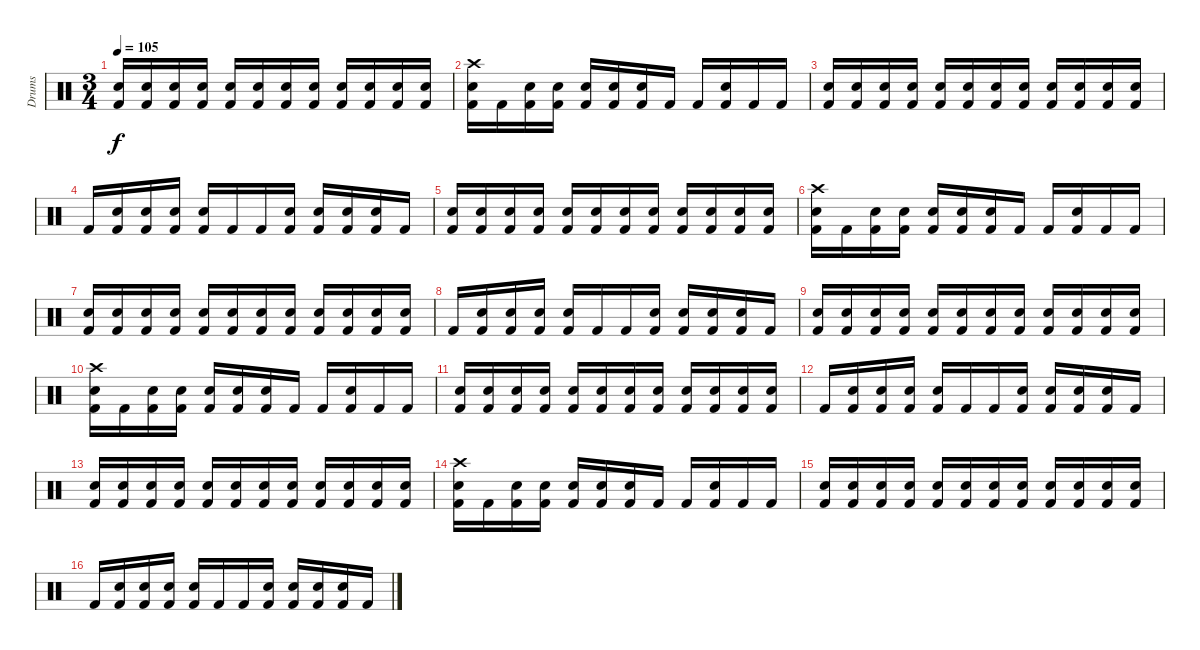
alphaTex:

\track ("Drums" "Drums") {instrument percussion}
\staff {score}
\articulation defaults
\ts (3 4)
\tempo 105
\clef neutral
\ks c
("Snare (hit) 2" "Kick (hit) 2").16{dy f} ("Snare (hit) 2" "Kick (hit) 2").16 ("Snare (hit) 2" "Kick (hit) 2").16 ("Snare (hit) 2" "Kick (hit) 2").16 ("Snare (hit) 2" "Kick (hit) 2").16 ("Snare (hit) 2" "Kick (hit) 2").16 ("Snare (hit) 2" "Kick (hit) 2").16 ("Snare (hit) 2" "Kick (hit) 2").16 ("Snare (hit) 2" "Kick (hit) 2").16 ("Snare (hit) 2" "Kick (hit) 2").16 ("Snare (hit) 2" "Kick (hit) 2").16 ("Snare (hit) 2" "Kick (hit) 2").16 |
("Crash high (hit)" "Snare (hit) 2" "Kick (hit) 2").16 "Kick (hit) 2".16 ("Snare (hit) 2" "Kick (hit) 2").16 ("Snare (hit) 2" "Kick (hit) 2").16 ("Snare (hit) 2" "Kick (hit) 2").16 ("Snare (hit) 2" "Kick (hit) 2").16 ("Snare (hit) 2" "Kick (hit) 2").16 "Kick (hit) 2".16 "Kick (hit) 2".16 ("Snare (hit) 2" "Kick (hit) 2").16 "Kick (hit) 2".16 "Kick (hit) 2".16 |
("Snare (hit) 2" "Kick (hit) 2").16 ("Snare (hit) 2" "Kick (hit) 2").16 ("Snare (hit) 2" "Kick (hit) 2").16 ("Snare (hit) 2" "Kick (hit) 2").16 ("Snare (hit) 2" "Kick (hit) 2").16 ("Snare (hit) 2" "Kick (hit) 2").16 ("Snare (hit) 2" "Kick (hit) 2").16 ("Snare (hit) 2" "Kick (hit) 2").16 ("Snare (hit) 2" "Kick (hit) 2").16 ("Snare (hit) 2" "Kick (hit) 2").16 ("Snare (hit) 2" "Kick (hit) 2").16 ("Snare (hit) 2" "Kick (hit) 2").16 |
"Kick (hit) 2".16 ("Snare (hit) 2" "Kick (hit) 2").16 ("Snare (hit) 2" "Kick (hit) 2").16 ("Snare (hit) 2" "Kick (hit) 2").16 ("Snare (hit) 2" "Kick (hit) 2").16 "Kick (hit) 2".16 "Kick (hit) 2".16 ("Snare (hit) 2" "Kick (hit) 2").16 ("Snare (hit) 2" "Kick (hit) 2").16 ("Snare (hit) 2" "Kick (hit) 2").16 ("Snare (hit) 2" "Kick (hit) 2").16 "Kick (hit) 2".16 |
("Snare (hit) 2" "Kick (hit) 2").16 ("Snare (hit) 2" "Kick (hit) 2").16 ("Snare (hit) 2" "Kick (hit) 2").16 ("Snare (hit) 2" "Kick (hit) 2").16 ("Snare (hit) 2" "Kick (hit) 2").16 ("Snare (hit) 2" "Kick (hit) 2").16 ("Snare (hit) 2" "Kick (hit) 2").16 ("Snare (hit) 2" "Kick (hit) 2").16 ("Snare (hit) 2" "Kick (hit) 2").16 ("Snare (hit) 2" "Kick (hit) 2").16 ("Snare (hit) 2" "Kick (hit) 2").16 ("Snare (hit) 2" "Kick (hit) 2").16 |
("Crash high (hit)" "Snare (hit) 2" "Kick (hit) 2").16 "Kick (hit) 2".16 ("Snare (hit) 2" "Kick (hit) 2").16 ("Snare (hit) 2" "Kick (hit) 2").16 ("Snare (hit) 2" "Kick (hit) 2").16 ("Snare (hit) 2" "Kick (hit) 2").16 ("Snare (hit) 2" "Kick (hit) 2").16 "Kick (hit) 2".16 "Kick (hit) 2".16 ("Snare (hit) 2" "Kick (hit) 2").16 "Kick (hit) 2".16 "Kick (hit) 2".16 |
("Snare (hit) 2" "Kick (hit) 2").16 ("Snare (hit) 2" "Kick (hit) 2").16 ("Snare (hit) 2" "Kick (hit) 2").16 ("Snare (hit) 2" "Kick (hit) 2").16 ("Snare (hit) 2" "Kick (hit) 2").16 ("Snare (hit) 2" "Kick (hit) 2").16 ("Snare (hit) 2" "Kick (hit) 2").16 ("Snare (hit) 2" "Kick (hit) 2").16 ("Snare (hit) 2" "Kick (hit) 2").16 ("Snare (hit) 2" "Kick (hit) 2").16 ("Snare (hit) 2" "Kick (hit) 2").16 ("Snare (hit) 2" "Kick (hit) 2").16 |
"Kick (hit) 2".16 ("Snare (hit) 2" "Kick (hit) 2").16 ("Snare (hit) 2" "Kick (hit) 2").16 ("Snare (hit) 2" "Kick (hit) 2").16 ("Snare (hit) 2" "Kick (hit) 2").16 "Kick (hit) 2".16 "Kick (hit) 2".16 ("Snare (hit) 2" "Kick (hit) 2").16 ("Snare (hit) 2" "Kick (hit) 2").16 ("Snare (hit) 2" "Kick (hit) 2").16 ("Snare (hit) 2" "Kick (hit) 2").16 "Kick (hit) 2".16 |
("Snare (hit) 2" "Kick (hit) 2").16 ("Snare (hit) 2" "Kick (hit) 2").16 ("Snare (hit) 2" "Kick (hit) 2").16 ("Snare (hit) 2" "Kick (hit) 2").16 ("Snare (hit) 2" "Kick (hit) 2").16 ("Snare (hit) 2" "Kick (hit) 2").16 ("Snare (hit) 2" "Kick (hit) 2").16 ("Snare (hit) 2" "Kick (hit) 2").16 ("Snare (hit) 2" "Kick (hit) 2").16 ("Snare (hit) 2" "Kick (hit) 2").16 ("Snare (hit) 2" "Kick (hit) 2").16 ("Snare (hit) 2" "Kick (hit) 2").16 |
("Crash high (hit)" "Snare (hit) 2" "Kick (hit) 2").16 "Kick (hit) 2".16 ("Snare (hit) 2" "Kick (hit) 2").16 ("Snare (hit) 2" "Kick (hit) 2").16 ("Snare (hit) 2" "Kick (hit) 2").16 ("Snare (hit) 2" "Kick (hit) 2").16 ("Snare (hit) 2" "Kick (hit) 2").16 "Kick (hit) 2".16 "Kick (hit) 2".16 ("Snare (hit) 2" "Kick (hit) 2").16 "Kick (hit) 2".16 "Kick (hit) 2".16 |
("Snare (hit) 2" "Kick (hit) 2").16 ("Snare (hit) 2" "Kick (hit) 2").16 ("Snare (hit) 2" "Kick (hit) 2").16 ("Snare (hit) 2" "Kick (hit) 2").16 ("Snare (hit) 2" "Kick (hit) 2").16 ("Snare (hit) 2" "Kick (hit) 2").16 ("Snare (hit) 2" "Kick (hit) 2").16 ("Snare (hit) 2" "Kick (hit) 2").16 ("Snare (hit) 2" "Kick (hit) 2").16 ("Snare (hit) 2" "Kick (hit) 2").16 ("Snare (hit) 2" "Kick (hit) 2").16 ("Snare (hit) 2" "Kick (hit) 2").16 |
"Kick (hit) 2".16 ("Snare (hit) 2" "Kick (hit) 2").16 ("Snare (hit) 2" "Kick (hit) 2").16 ("Snare (hit) 2" "Kick (hit) 2").16 ("Snare (hit) 2" "Kick (hit) 2").16 "Kick (hit) 2".16 "Kick (hit) 2".16 ("Snare (hit) 2" "Kick (hit) 2").16 ("Snare (hit) 2" "Kick (hit) 2").16 ("Snare (hit) 2" "Kick (hit) 2").16 ("Snare (hit) 2" "Kick (hit) 2").16 "Kick (hit) 2".16 |
("Snare (hit) 2" "Kick (hit) 2").16 ("Snare (hit) 2" "Kick (hit) 2").16 ("Snare (hit) 2" "Kick (hit) 2").16 ("Snare (hit) 2" "Kick (hit) 2").16 ("Snare (hit) 2" "Kick (hit) 2").16 ("Snare (hit) 2" "Kick (hit) 2").16 ("Snare (hit) 2" "Kick (hit) 2").16 ("Snare (hit) 2" "Kick (hit) 2").16 ("Snare (hit) 2" "Kick (hit) 2").16 ("Snare (hit) 2" "Kick (hit) 2").16 ("Snare (hit) 2" "Kick (hit) 2").16 ("Snare (hit) 2" "Kick (hit) 2").16 |
("Crash high (hit)" "Snare (hit) 2" "Kick (hit) 2").16 "Kick (hit) 2".16 ("Snare (hit) 2" "Kick (hit) 2").16 ("Snare (hit) 2" "Kick (hit) 2").16 ("Snare (hit) 2" "Kick (hit) 2").16 ("Snare (hit) 2" "Kick (hit) 2").16 ("Snare (hit) 2" "Kick (hit) 2").16 "Kick (hit) 2".16 "Kick (hit) 2".16 ("Snare (hit) 2" "Kick (hit) 2").16 "Kick (hit) 2".16 "Kick (hit) 2".16 |
("Snare (hit) 2" "Kick (hit) 2").16 ("Snare (hit) 2" "Kick (hit) 2").16 ("Snare (hit) 2" "Kick (hit) 2").16 ("Snare (hit) 2" "Kick (hit) 2").16 ("Snare (hit) 2" "Kick (hit) 2").16 ("Snare (hit) 2" "Kick (hit) 2").16 ("Snare (hit) 2" "Kick (hit) 2").16 ("Snare (hit) 2" "Kick (hit) 2").16 ("Snare (hit) 2" "Kick (hit) 2").16 ("Snare (hit) 2" "Kick (hit) 2").16 ("Snare (hit) 2" "Kick (hit) 2").16 ("Snare (hit) 2" "Kick (hit) 2").16 |
"Kick (hit) 2".16 ("Snare (hit) 2" "Kick (hit) 2").16 ("Snare (hit) 2" "Kick (hit) 2").16 ("Snare (hit) 2" "Kick (hit) 2").16 ("Snare (hit) 2" "Kick (hit) 2").16 "Kick (hit) 2".16 "Kick (hit) 2".16 ("Snare (hit) 2" "Kick (hit) 2").16 ("Snare (hit) 2" "Kick (hit) 2").16 ("Snare (hit) 2" "Kick (hit) 2").16 ("Snare (hit) 2" "Kick (hit) 2").16 "Kick (hit) 2".16
